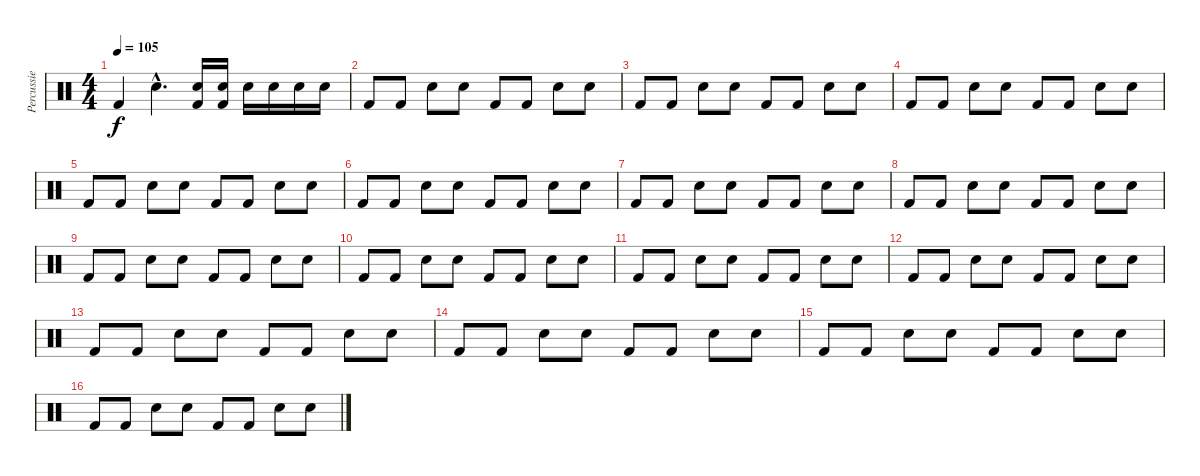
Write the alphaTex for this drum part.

\track ("Percussie" "Percussie") {instrument percussion}
\staff {score}
\articulation defaults
\ts (4 4)
\tempo 105
\clef neutral
\ks c "Kick (hit) 2".4{dy f} "Electric Snare (hit)"{hac}.4{d}
("Kick (hit) 2" "Electric Snare (hit)").16 ("Kick (hit) 2" "Electric Snare (hit)").16 "Electric Snare (hit)".16 "Electric Snare (hit)".16 "Electric Snare (hit)".16 "Electric Snare (hit)".16 |
"Kick (hit) 2".8 "Kick (hit) 2".8 "Electric Snare (hit)".8 "Electric Snare (hit)".8 "Kick (hit) 2".8 "Kick (hit) 2".8 "Electric Snare (hit)".8 "Electric Snare (hit)".8 |
"Kick (hit) 2".8 "Kick (hit) 2".8 "Electric Snare (hit)".8 "Electric Snare (hit)".8 "Kick (hit) 2".8 "Kick (hit) 2".8 "Electric Snare (hit)".8 "Electric Snare (hit)".8 |
"Kick (hit) 2".8 "Kick (hit) 2".8 "Electric Snare (hit)".8 "Electric Snare (hit)".8 "Kick (hit) 2".8 "Kick (hit) 2".8 "Electric Snare (hit)".8 "Electric Snare (hit)".8 |
"Kick (hit) 2".8 "Kick (hit) 2".8 "Electric Snare (hit)".8 "Electric Snare (hit)".8 "Kick (hit) 2".8 "Kick (hit) 2".8 "Electric Snare (hit)".8 "Electric Snare (hit)".8 |
"Kick (hit) 2".8 "Kick (hit) 2".8 "Electric Snare (hit)".8 "Electric Snare (hit)".8 "Kick (hit) 2".8 "Kick (hit) 2".8 "Electric Snare (hit)".8 "Electric Snare (hit)".8 |
"Kick (hit) 2".8 "Kick (hit) 2".8 "Electric Snare (hit)".8 "Electric Snare (hit)".8 "Kick (hit) 2".8 "Kick (hit) 2".8 "Electric Snare (hit)".8 "Electric Snare (hit)".8 |
"Kick (hit) 2".8 "Kick (hit) 2".8 "Electric Snare (hit)".8 "Electric Snare (hit)".8 "Kick (hit) 2".8 "Kick (hit) 2".8 "Electric Snare (hit)".8 "Electric Snare (hit)".8 |
"Kick (hit) 2".8 "Kick (hit) 2".8 "Electric Snare (hit)".8 "Electric Snare (hit)".8 "Kick (hit) 2".8 "Kick (hit) 2".8 "Electric Snare (hit)".8 "Electric Snare (hit)".8 |
"Kick (hit) 2".8 "Kick (hit) 2".8 "Electric Snare (hit)".8 "Electric Snare (hit)".8 "Kick (hit) 2".8 "Kick (hit) 2".8 "Electric Snare (hit)".8 "Electric Snare (hit)".8 |
"Kick (hit) 2".8 "Kick (hit) 2".8 "Electric Snare (hit)".8 "Electric Snare (hit)".8 "Kick (hit) 2".8 "Kick (hit) 2".8 "Electric Snare (hit)".8 "Electric Snare (hit)".8 |
"Kick (hit) 2".8 "Kick (hit) 2".8 "Electric Snare (hit)".8 "Electric Snare (hit)".8 "Kick (hit) 2".8 "Kick (hit) 2".8 "Electric Snare (hit)".8 "Electric Snare (hit)".8 |
"Kick (hit) 2".8 "Kick (hit) 2".8 "Electric Snare (hit)".8 "Electric Snare (hit)".8 "Kick (hit) 2".8 "Kick (hit) 2".8 "Electric Snare (hit)".8 "Electric Snare (hit)".8 |
"Kick (hit) 2".8 "Kick (hit) 2".8 "Electric Snare (hit)".8 "Electric Snare (hit)".8 "Kick (hit) 2".8 "Kick (hit) 2".8 "Electric Snare (hit)".8 "Electric Snare (hit)".8 |
"Kick (hit) 2".8 "Kick (hit) 2".8 "Electric Snare (hit)".8 "Electric Snare (hit)".8 "Kick (hit) 2".8 "Kick (hit) 2".8 "Electric Snare (hit)".8 "Electric Snare (hit)".8 |
"Kick (hit) 2".8 "Kick (hit) 2".8 "Electric Snare (hit)".8 "Electric Snare (hit)".8 "Kick (hit) 2".8 "Kick (hit) 2".8 "Electric Snare (hit)".8 "Electric Snare (hit)".8
